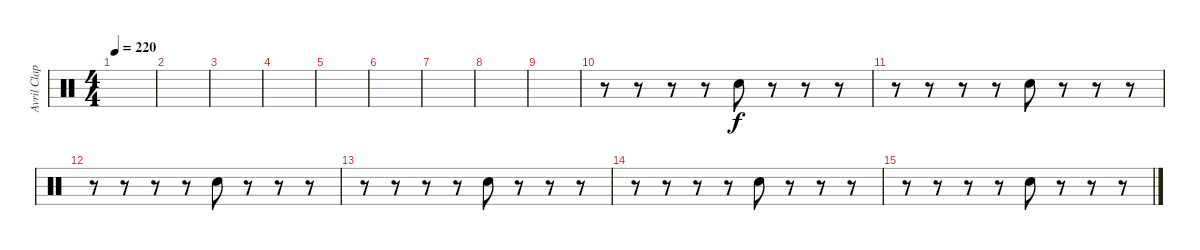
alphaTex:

\track ("Avril Claps" "Avril Clap") {instrument percussion}
\staff {score}
\articulation defaults
\ts (4 4)
\tempo 220
\clef neutral
\ks c
|
|
|
|
|
|
|
|
|
r.8 r.8 r.8 r.8 "Hand Clap (hit)".8 r.8 r.8 r.8 |
r.8 r.8 r.8 r.8 "Hand Clap (hit)".8 r.8 r.8 r.8 |
r.8 r.8 r.8 r.8 "Hand Clap (hit)".8 r.8 r.8 r.8 |
r.8 r.8 r.8 r.8 "Hand Clap (hit)".8 r.8 r.8 r.8 |
r.8 r.8 r.8 r.8 "Hand Clap (hit)".8 r.8 r.8 r.8 |
r.8 r.8 r.8 r.8 "Hand Clap (hit)".8 r.8 r.8 r.8
